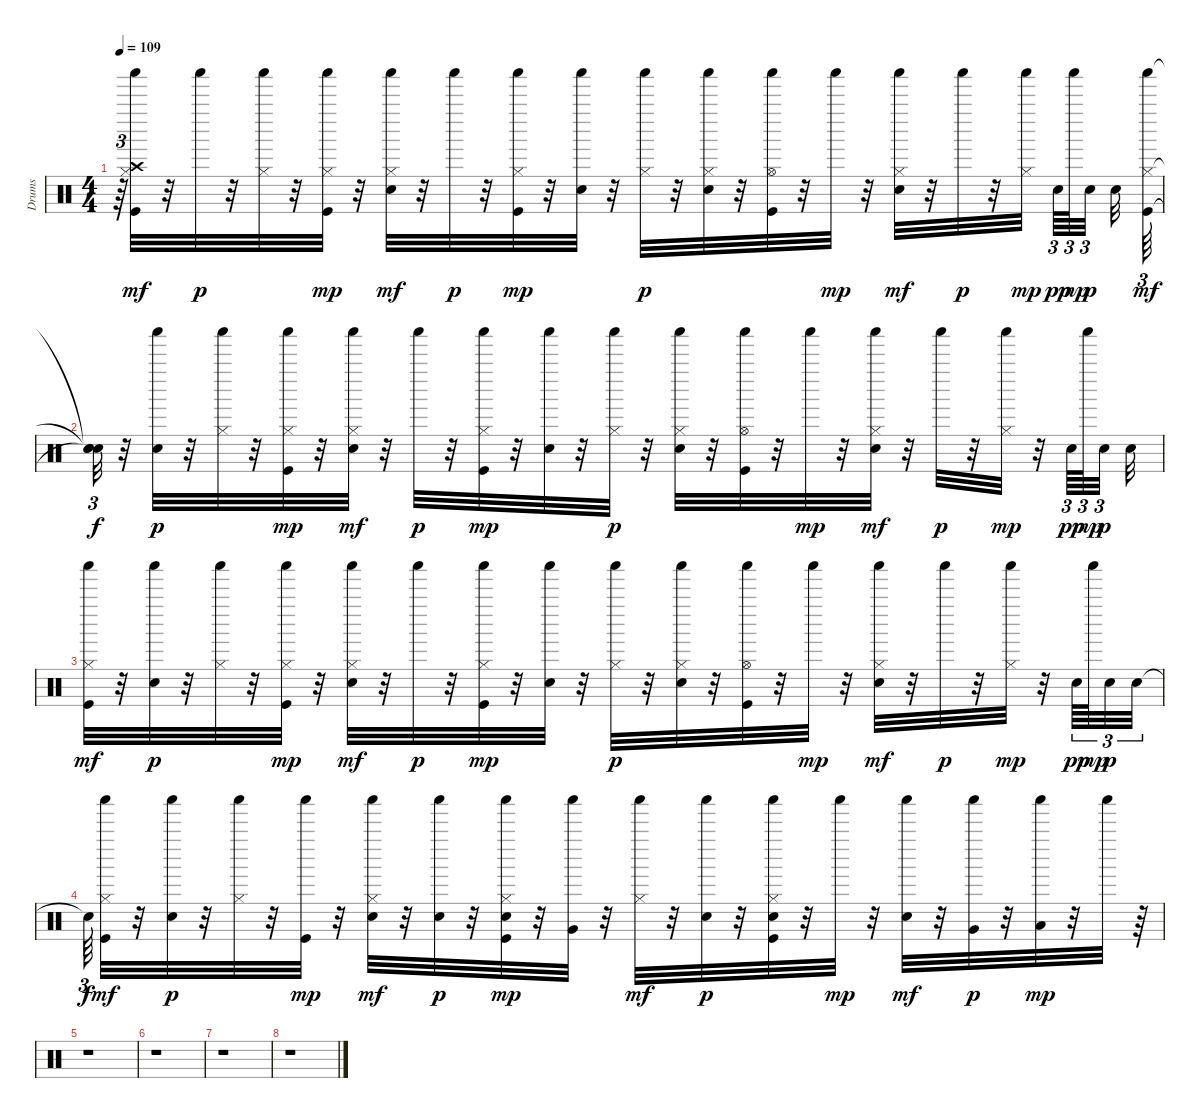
\track ("Drums" "Drums") {instrument percussion}
\staff {score}
\articulation defaults
\ts (4 4)
\tempo 109
\clef neutral
\ks c
r.64{tu (3 2) dy mp} ("Kick (hit)" "Crash high (hit)" "Hi-Hat (closed)" "Shaker (hit)").32{dy mf} r.32 "Shaker (hit)".32{dy p} r.32 ("Hi-Hat (closed)" "Shaker (hit)").32 r.32 ("Kick (hit)" "Hi-Hat (closed)" "Shaker (hit)").32{dy mp} r.32 ("Snare (hit) 2" "Hi-Hat (closed)" "Shaker (hit)").32{dy mf} r.32 "Shaker (hit)".32{dy p} r.32 ("Kick (hit)" "Hi-Hat (closed)" "Shaker (hit)").32{dy mp} r.32 ("Snare (hit) 2" "Shaker (hit)").32 r.32 ("Hi-Hat (closed)" "Shaker (hit)").32{dy p} r.32 ("Snare (hit) 2" "Hi-Hat (closed)" "Shaker (hit)").32 r.32 ("Kick (hit)" "Hi-Hat (open)" "Shaker (hit)").32 r.32 "Shaker (hit)".32{dy mp} r.32 ("Snare (hit) 2" "Hi-Hat (closed)" "Shaker (hit)").32{dy mf} r.32 "Shaker (hit)".32{dy p} r.32 ("Hi-Hat (closed)" "Shaker (hit)").32{dy mp beam splitsecondary} "Snare (hit) 2".64{tu (3 2) dy pp} "Shaker (hit)".64{tu (3 2) dy mp} "Snare (hit) 2".32{tu (3 2) dy p beam splitsecondary} "Snare (hit) 2".32 ("Kick (hit)" "Hi-Hat (closed)" "Shaker (hit)").64{tu (3 2) dy mf} |
("Snare (hit)"{t} "Snare (hit)"{t} "Snare (hit)"{t}).32{tu (3 2) dy f} r.32 ("Snare (hit) 2" "Shaker (hit)").32{dy p} r.32 ("Hi-Hat (closed)" "Shaker (hit)").32 r.32 ("Kick (hit)" "Hi-Hat (closed)" "Shaker (hit)").32{dy mp} r.32 ("Snare (hit) 2" "Hi-Hat (closed)" "Shaker (hit)").32{dy mf} r.32 "Shaker (hit)".32{dy p} r.32 ("Kick (hit)" "Hi-Hat (closed)" "Shaker (hit)").32{dy mp} r.32 ("Snare (hit) 2" "Shaker (hit)").32 r.32 ("Hi-Hat (closed)" "Shaker (hit)").32{dy p} r.32 ("Snare (hit) 2" "Hi-Hat (closed)" "Shaker (hit)").32 r.32 ("Kick (hit)" "Hi-Hat (open)" "Shaker (hit)").32 r.32 "Shaker (hit)".32{dy mp} r.32 ("Snare (hit) 2" "Hi-Hat (closed)" "Shaker (hit)").32{dy mf} r.32 "Shaker (hit)".32{dy p} r.32 ("Hi-Hat (closed)" "Shaker (hit)").32{dy mp} r.32 "Snare (hit) 2".64{tu (3 2) dy pp} "Shaker (hit)".64{tu (3 2) dy mp} "Snare (hit) 2".32{tu (3 2) dy p beam splitsecondary} "Snare (hit) 2".32 |
("Kick (hit)" "Hi-Hat (closed)" "Shaker (hit)").32{dy mf} r.32 ("Snare (hit) 2" "Shaker (hit)").32{dy p} r.32 ("Hi-Hat (closed)" "Shaker (hit)").32 r.32 ("Kick (hit)" "Hi-Hat (closed)" "Shaker (hit)").32{dy mp} r.32 ("Snare (hit) 2" "Hi-Hat (closed)" "Shaker (hit)").32{dy mf} r.32 "Shaker (hit)".32{dy p} r.32 ("Kick (hit)" "Hi-Hat (closed)" "Shaker (hit)").32{dy mp} r.32 ("Snare (hit) 2" "Shaker (hit)").32 r.32 ("Hi-Hat (closed)" "Shaker (hit)").32{dy p} r.32 ("Snare (hit) 2" "Hi-Hat (closed)" "Shaker (hit)").32 r.32 ("Kick (hit)" "Hi-Hat (open)" "Shaker (hit)").32 r.32 "Shaker (hit)".32{dy mp} r.32 ("Snare (hit) 2" "Hi-Hat (closed)" "Shaker (hit)").32{dy mf} r.32 "Shaker (hit)".32{dy p} r.32 ("Hi-Hat (closed)" "Shaker (hit)").32{dy mp} r.32 "Snare (hit) 2".64{tu (3 2) dy pp} "Shaker (hit)".64{tu (3 2) dy mp} "Snare (hit) 2".32{tu (3 2) dy p} "Snare (hit) 2".32{tu (3 2)} |
"Snare (hit)"{t}.64{tu (3 2) dy f} ("Kick (hit)" "Hi-Hat (closed)" "Shaker (hit)").32{dy mf} r.32 ("Snare (hit) 2" "Shaker (hit)").32{dy p} r.32 ("Hi-Hat (closed)" "Shaker (hit)").32 r.32 ("Kick (hit)" "Shaker (hit)").32{dy mp} r.32 ("Snare (hit) 2" "Hi-Hat (closed)" "Shaker (hit)").32{dy mf} r.32 ("Snare (hit) 2" "Shaker (hit)").32{dy p} r.32 ("Kick (hit)" "Snare (hit) 2" "Hi-Hat (closed)" "Shaker (hit)").32{dy mp} r.32 ("Very Low Tom (hit)" "Shaker (hit)").32 r.32 ("Hi-Hat (closed)" "Shaker (hit)").32{dy mf} r.32 ("Snare (hit) 2" "Shaker (hit)").32{dy p} r.32 ("Kick (hit)" "Snare (hit) 2" "Hi-Hat (closed)" "Shaker (hit)").32 r.32 "Shaker (hit)".32{dy mp} r.32 ("Snare (hit) 2" "Shaker (hit)").32{dy mf} r.32 ("Very Low Tom (hit)" "Shaker (hit)").32{dy p} r.32 ("Low Floor Tom (hit)" "Shaker (hit)").32{dy mp} r.32 "Shaker (hit)".32 r.64 |
r.1 |
r.1 |
r.1 |
r.1
